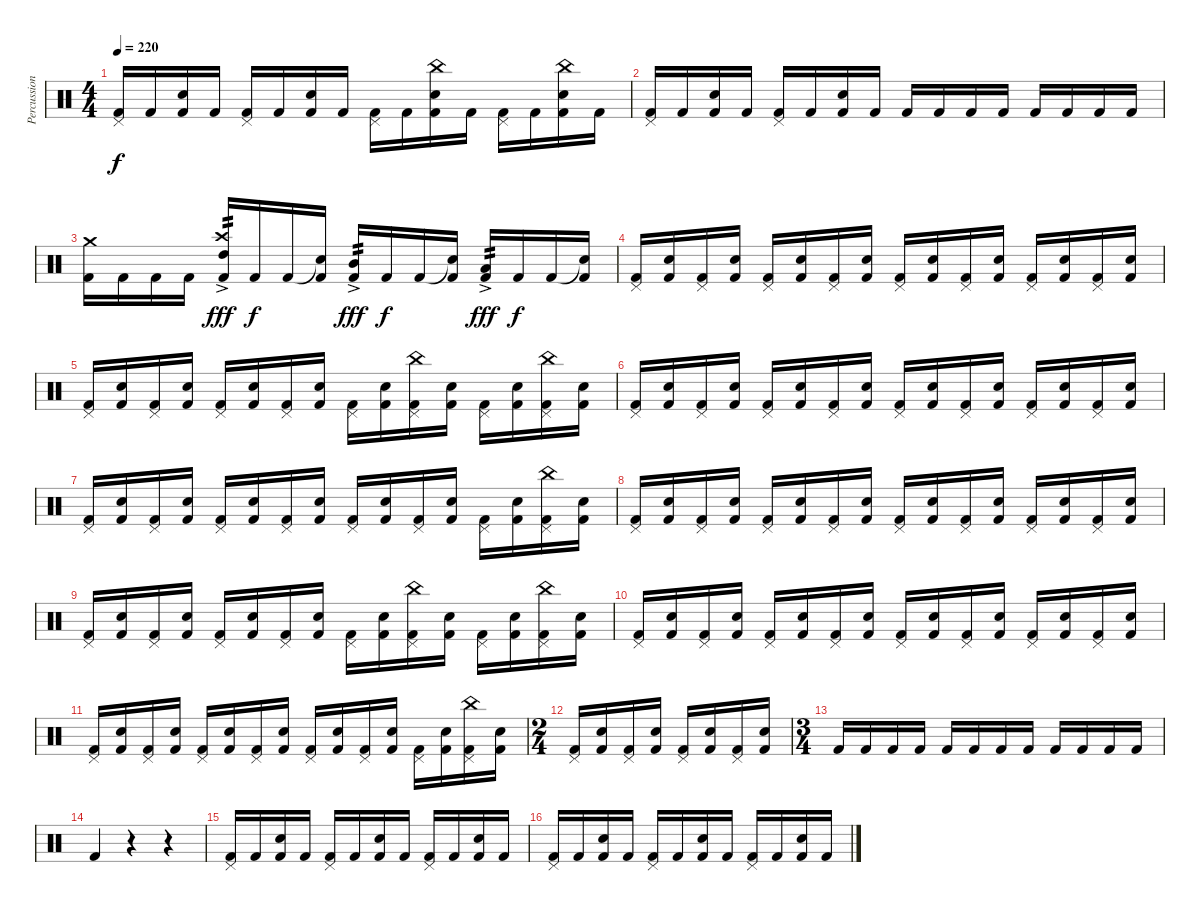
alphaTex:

\track ("Percussions" "Percussion") {instrument percussion}
\staff {score}
\articulation defaults
\ts (4 4)
\tempo 220
\clef neutral
\ks c
("Pedal Hi-Hat (hit)" "Kick (hit) 2").16{dy f} "Kick (hit) 2".16 ("Snare (hit) 2" "Kick (hit) 2").16 "Kick (hit) 2".16 ("Pedal Hi-Hat (hit)" "Kick (hit) 2").16 "Kick (hit) 2".16 ("Snare (hit) 2" "Kick (hit) 2").16 "Kick (hit) 2".16 ("Pedal Hi-Hat (hit)" "Kick (hit) 2").16 "Kick (hit) 2".16 ("China (hit)" "Snare (hit) 2" "Kick (hit) 2").16 "Kick (hit) 2".16 ("Pedal Hi-Hat (hit)" "Kick (hit) 2").16 "Kick (hit) 2".16 ("China (hit)" "Snare (hit) 2" "Kick (hit) 2").16 "Kick (hit) 2".16 |
("Pedal Hi-Hat (hit)" "Kick (hit) 2").16 "Kick (hit) 2".16 ("Snare (hit) 2" "Kick (hit) 2").16 "Kick (hit) 2".16 ("Pedal Hi-Hat (hit)" "Kick (hit) 2").16 "Kick (hit) 2".16 ("Snare (hit) 2" "Kick (hit) 2").16 "Kick (hit) 2".16 "Kick (hit) 2".16 "Kick (hit) 2".16 "Kick (hit) 2".16 "Kick (hit) 2".16 "Kick (hit) 2".16 "Kick (hit) 2".16 "Kick (hit) 2".16 "Kick (hit) 2".16 |
("Crash medium (hit)" "Kick (hit) 2").16 "Kick (hit) 2".16 "Kick (hit) 2".16 "Kick (hit) 2".16 ("Crash high (hit)" "High Tom (hit)"{ac} "Kick (hit) 2").16{tp 2 dy fff} "Kick (hit) 2".16{dy f} "Kick (hit) 2".16 ("Snare (hit)"{t} "Kick (hit) 2").16 ("Mid Tom (hit)"{ac} "Kick (hit) 2").16{tp 2 dy fff} "Kick (hit) 2".16{dy f} "Kick (hit) 2".16 ("Snare (hit)"{t} "Kick (hit) 2").16 ("Low Tom (hit)"{ac} "Kick (hit) 2").16{tp 2 dy fff} "Kick (hit) 2".16{dy f} "Kick (hit) 2".16 ("Snare (hit)"{t} "Kick (hit) 2").16 |
("Pedal Hi-Hat (hit)" "Kick (hit) 2").16 ("Snare (hit) 2" "Kick (hit) 2").16 ("Pedal Hi-Hat (hit)" "Kick (hit) 2").16 ("Snare (hit) 2" "Kick (hit) 2").16 ("Pedal Hi-Hat (hit)" "Kick (hit) 2").16 ("Snare (hit) 2" "Kick (hit) 2").16 ("Pedal Hi-Hat (hit)" "Kick (hit) 2").16 ("Snare (hit) 2" "Kick (hit) 2").16 ("Pedal Hi-Hat (hit)" "Kick (hit) 2").16 ("Snare (hit) 2" "Kick (hit) 2").16 ("Pedal Hi-Hat (hit)" "Kick (hit) 2").16 ("Snare (hit) 2" "Kick (hit) 2").16 ("Pedal Hi-Hat (hit)" "Kick (hit) 2").16 ("Snare (hit) 2" "Kick (hit) 2").16 ("Pedal Hi-Hat (hit)" "Kick (hit) 2").16 ("Snare (hit) 2" "Kick (hit) 2").16 |
("Pedal Hi-Hat (hit)" "Kick (hit) 2").16 ("Snare (hit) 2" "Kick (hit) 2").16 ("Pedal Hi-Hat (hit)" "Kick (hit) 2").16 ("Snare (hit) 2" "Kick (hit) 2").16 ("Pedal Hi-Hat (hit)" "Kick (hit) 2").16 ("Snare (hit) 2" "Kick (hit) 2").16 ("Pedal Hi-Hat (hit)" "Kick (hit) 2").16 ("Snare (hit) 2" "Kick (hit) 2").16 ("Pedal Hi-Hat (hit)" "Kick (hit) 2").16 ("Snare (hit) 2" "Kick (hit) 2").16 ("China (hit)" "Pedal Hi-Hat (hit)" "Kick (hit) 2").16 ("Snare (hit) 2" "Kick (hit) 2").16 ("Pedal Hi-Hat (hit)" "Kick (hit) 2").16 ("Snare (hit) 2" "Kick (hit) 2").16 ("China (hit)" "Pedal Hi-Hat (hit)" "Kick (hit) 2").16 ("Snare (hit) 2" "Kick (hit) 2").16 |
("Pedal Hi-Hat (hit)" "Kick (hit) 2").16 ("Snare (hit) 2" "Kick (hit) 2").16 ("Pedal Hi-Hat (hit)" "Kick (hit) 2").16 ("Snare (hit) 2" "Kick (hit) 2").16 ("Pedal Hi-Hat (hit)" "Kick (hit) 2").16 ("Snare (hit) 2" "Kick (hit) 2").16 ("Pedal Hi-Hat (hit)" "Kick (hit) 2").16 ("Snare (hit) 2" "Kick (hit) 2").16 ("Pedal Hi-Hat (hit)" "Kick (hit) 2").16 ("Snare (hit) 2" "Kick (hit) 2").16 ("Pedal Hi-Hat (hit)" "Kick (hit) 2").16 ("Snare (hit) 2" "Kick (hit) 2").16 ("Pedal Hi-Hat (hit)" "Kick (hit) 2").16 ("Snare (hit) 2" "Kick (hit) 2").16 ("Pedal Hi-Hat (hit)" "Kick (hit) 2").16 ("Snare (hit) 2" "Kick (hit) 2").16 |
("Pedal Hi-Hat (hit)" "Kick (hit) 2").16 ("Snare (hit) 2" "Kick (hit) 2").16 ("Pedal Hi-Hat (hit)" "Kick (hit) 2").16 ("Snare (hit) 2" "Kick (hit) 2").16 ("Pedal Hi-Hat (hit)" "Kick (hit) 2").16 ("Snare (hit) 2" "Kick (hit) 2").16 ("Pedal Hi-Hat (hit)" "Kick (hit) 2").16 ("Snare (hit) 2" "Kick (hit) 2").16 ("Pedal Hi-Hat (hit)" "Kick (hit) 2").16 ("Snare (hit) 2" "Kick (hit) 2").16 ("Pedal Hi-Hat (hit)" "Kick (hit) 2").16 ("Snare (hit) 2" "Kick (hit) 2").16 ("Pedal Hi-Hat (hit)" "Kick (hit) 2").16 ("Snare (hit) 2" "Kick (hit) 2").16 ("China (hit)" "Pedal Hi-Hat (hit)" "Kick (hit) 2").16 ("Snare (hit) 2" "Kick (hit) 2").16 |
("Pedal Hi-Hat (hit)" "Kick (hit) 2").16 ("Snare (hit) 2" "Kick (hit) 2").16 ("Pedal Hi-Hat (hit)" "Kick (hit) 2").16 ("Snare (hit) 2" "Kick (hit) 2").16 ("Pedal Hi-Hat (hit)" "Kick (hit) 2").16 ("Snare (hit) 2" "Kick (hit) 2").16 ("Pedal Hi-Hat (hit)" "Kick (hit) 2").16 ("Snare (hit) 2" "Kick (hit) 2").16 ("Pedal Hi-Hat (hit)" "Kick (hit) 2").16 ("Snare (hit) 2" "Kick (hit) 2").16 ("Pedal Hi-Hat (hit)" "Kick (hit) 2").16 ("Snare (hit) 2" "Kick (hit) 2").16 ("Pedal Hi-Hat (hit)" "Kick (hit) 2").16 ("Snare (hit) 2" "Kick (hit) 2").16 ("Pedal Hi-Hat (hit)" "Kick (hit) 2").16 ("Snare (hit) 2" "Kick (hit) 2").16 |
("Pedal Hi-Hat (hit)" "Kick (hit) 2").16 ("Snare (hit) 2" "Kick (hit) 2").16 ("Pedal Hi-Hat (hit)" "Kick (hit) 2").16 ("Snare (hit) 2" "Kick (hit) 2").16 ("Pedal Hi-Hat (hit)" "Kick (hit) 2").16 ("Snare (hit) 2" "Kick (hit) 2").16 ("Pedal Hi-Hat (hit)" "Kick (hit) 2").16 ("Snare (hit) 2" "Kick (hit) 2").16 ("Pedal Hi-Hat (hit)" "Kick (hit) 2").16 ("Snare (hit) 2" "Kick (hit) 2").16 ("China (hit)" "Pedal Hi-Hat (hit)" "Kick (hit) 2").16 ("Snare (hit) 2" "Kick (hit) 2").16 ("Pedal Hi-Hat (hit)" "Kick (hit) 2").16 ("Snare (hit) 2" "Kick (hit) 2").16 ("China (hit)" "Pedal Hi-Hat (hit)" "Kick (hit) 2").16 ("Snare (hit) 2" "Kick (hit) 2").16 |
("Pedal Hi-Hat (hit)" "Kick (hit) 2").16 ("Snare (hit) 2" "Kick (hit) 2").16 ("Pedal Hi-Hat (hit)" "Kick (hit) 2").16 ("Snare (hit) 2" "Kick (hit) 2").16 ("Pedal Hi-Hat (hit)" "Kick (hit) 2").16 ("Snare (hit) 2" "Kick (hit) 2").16 ("Pedal Hi-Hat (hit)" "Kick (hit) 2").16 ("Snare (hit) 2" "Kick (hit) 2").16 ("Pedal Hi-Hat (hit)" "Kick (hit) 2").16 ("Snare (hit) 2" "Kick (hit) 2").16 ("Pedal Hi-Hat (hit)" "Kick (hit) 2").16 ("Snare (hit) 2" "Kick (hit) 2").16 ("Pedal Hi-Hat (hit)" "Kick (hit) 2").16 ("Snare (hit) 2" "Kick (hit) 2").16 ("Pedal Hi-Hat (hit)" "Kick (hit) 2").16 ("Snare (hit) 2" "Kick (hit) 2").16 |
("Pedal Hi-Hat (hit)" "Kick (hit) 2").16 ("Snare (hit) 2" "Kick (hit) 2").16 ("Pedal Hi-Hat (hit)" "Kick (hit) 2").16 ("Snare (hit) 2" "Kick (hit) 2").16 ("Pedal Hi-Hat (hit)" "Kick (hit) 2").16 ("Snare (hit) 2" "Kick (hit) 2").16 ("Pedal Hi-Hat (hit)" "Kick (hit) 2").16 ("Snare (hit) 2" "Kick (hit) 2").16 ("Pedal Hi-Hat (hit)" "Kick (hit) 2").16 ("Snare (hit) 2" "Kick (hit) 2").16 ("Pedal Hi-Hat (hit)" "Kick (hit) 2").16 ("Snare (hit) 2" "Kick (hit) 2").16 ("Pedal Hi-Hat (hit)" "Kick (hit) 2").16 ("Snare (hit) 2" "Kick (hit) 2").16 ("China (hit)" "Pedal Hi-Hat (hit)" "Kick (hit) 2").16 ("Snare (hit) 2" "Kick (hit) 2").16 |
\ts (2 4)
("Pedal Hi-Hat (hit)" "Kick (hit) 2").16 ("Snare (hit) 2" "Kick (hit) 2").16 ("Pedal Hi-Hat (hit)" "Kick (hit) 2").16 ("Snare (hit) 2" "Kick (hit) 2").16 ("Pedal Hi-Hat (hit)" "Kick (hit) 2").16 ("Snare (hit) 2" "Kick (hit) 2").16 ("Pedal Hi-Hat (hit)" "Kick (hit) 2").16 ("Snare (hit) 2" "Kick (hit) 2").16 |
\ts (3 4)
"Kick (hit) 2".16 "Kick (hit) 2".16 "Kick (hit) 2".16 "Kick (hit) 2".16 "Kick (hit) 2".16 "Kick (hit) 2".16 "Kick (hit) 2".16 "Kick (hit) 2".16 "Kick (hit) 2".16 "Kick (hit) 2".16 "Kick (hit) 2".16 "Kick (hit) 2".16 |
"Kick (hit) 2".4 r.4 r.4 |
("Pedal Hi-Hat (hit)" "Kick (hit) 2").16 "Kick (hit) 2".16 ("Snare (hit) 2" "Kick (hit) 2").16 "Kick (hit) 2".16 ("Pedal Hi-Hat (hit)" "Kick (hit) 2").16 "Kick (hit) 2".16 ("Snare (hit) 2" "Kick (hit) 2").16 "Kick (hit) 2".16 ("Pedal Hi-Hat (hit)" "Kick (hit) 2").16 "Kick (hit) 2".16 ("Snare (hit) 2" "Kick (hit) 2").16 "Kick (hit) 2".16 |
("Pedal Hi-Hat (hit)" "Kick (hit) 2").16 "Kick (hit) 2".16 ("Snare (hit) 2" "Kick (hit) 2").16 "Kick (hit) 2".16 ("Pedal Hi-Hat (hit)" "Kick (hit) 2").16 "Kick (hit) 2".16 ("Snare (hit) 2" "Kick (hit) 2").16 "Kick (hit) 2".16 ("Pedal Hi-Hat (hit)" "Kick (hit) 2").16 "Kick (hit) 2".16 ("Snare (hit) 2" "Kick (hit) 2").16 "Kick (hit) 2".16
